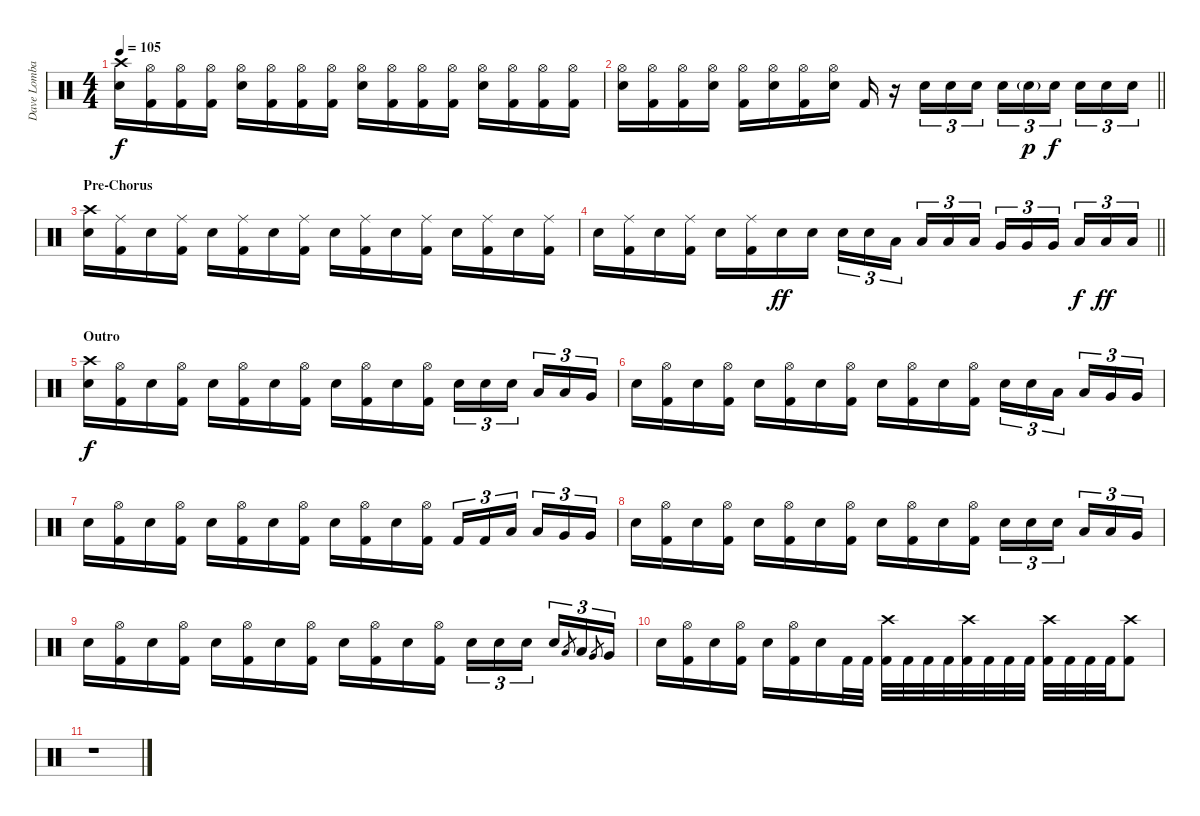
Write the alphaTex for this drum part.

\track ("Dave Lombardo" "Dave Lomba") {instrument percussion}
\staff {score}
\articulation defaults
\ts (4 4)
\tempo 105
\clef neutral
\ks c
("Crash high (hit)" "Snare (hit) 2").16{dy f} ("Hi-Hat (open)" "Kick (hit) 2").16 ("Hi-Hat (open)" "Kick (hit) 2").16 ("Hi-Hat (open)" "Kick (hit) 2").16 ("Hi-Hat (open)" "Snare (hit) 2").16 ("Hi-Hat (open)" "Kick (hit) 2").16 ("Hi-Hat (open)" "Kick (hit) 2").16 ("Hi-Hat (open)" "Kick (hit) 2").16 ("Hi-Hat (open)" "Snare (hit) 2").16 ("Hi-Hat (open)" "Kick (hit) 2").16 ("Hi-Hat (open)" "Kick (hit) 2").16 ("Hi-Hat (open)" "Kick (hit) 2").16 ("Hi-Hat (open)" "Snare (hit) 2").16 ("Hi-Hat (open)" "Kick (hit) 2").16 ("Hi-Hat (open)" "Kick (hit) 2").16 ("Hi-Hat (open)" "Kick (hit) 2").16 |
\barLineRight lightlight
("Hi-Hat (open)" "Snare (hit) 2").16 ("Hi-Hat (open)" "Kick (hit) 2").16 ("Hi-Hat (open)" "Kick (hit) 2").16 ("Hi-Hat (open)" "Snare (hit) 2").16 ("Hi-Hat (open)" "Kick (hit) 2").16 ("Hi-Hat (open)" "Snare (hit) 2").16 ("Hi-Hat (open)" "Kick (hit) 2").16 ("Hi-Hat (open)" "Snare (hit) 2").16 "Kick (hit) 2".16 r.16 "Snare (hit) 2".16{tu (3 2)} "Snare (hit) 2".16{tu (3 2)} "Snare (hit) 2".16{tu (3 2)} "Snare (hit) 2".16{tu (3 2)} "Snare (hit) 2"{g}.16{tu (3 2) dy p} "Snare (hit) 2".16{tu (3 2) dy f beam splitsecondary} "Snare (hit) 2".16{tu (3 2)} "Snare (hit) 2".16{tu (3 2)} "Snare (hit) 2".16{tu (3 2)} |
\section ("" "Pre-Chorus")
("Crash high (hit)" "Snare (hit) 2").16 ("Ride (middle)" "Kick (hit) 2").16 "Snare (hit) 2".16 ("Ride (middle)" "Kick (hit) 2").16 "Snare (hit) 2".16 ("Ride (middle)" "Kick (hit) 2").16 "Snare (hit) 2".16 ("Ride (middle)" "Kick (hit) 2").16 "Snare (hit) 2".16 ("Ride (middle)" "Kick (hit) 2").16 "Snare (hit) 2".16 ("Ride (middle)" "Kick (hit) 2").16 "Snare (hit) 2".16 ("Ride (middle)" "Kick (hit) 2").16 "Snare (hit) 2".16 ("Ride (middle)" "Kick (hit) 2").16 |
\barLineRight lightlight "Snare (hit) 2".16
("Ride (middle)" "Kick (hit) 2").16 "Snare (hit) 2".16 ("Ride (middle)" "Kick (hit) 2").16 "Snare (hit) 2".16 ("Ride (middle)" "Kick (hit) 2").16 "Snare (hit) 2".16{dy ff} "Snare (hit) 2".16 "Snare (hit) 2".16{tu (3 2)} "Snare (hit) 2".16{tu (3 2)} "Low Tom (hit)".16{tu (3 2) beam splitsecondary} "Low Tom (hit)".16{tu (3 2)} "Low Tom (hit)".16{tu (3 2)} "Low Tom (hit)".16{tu (3 2)} "Very Low Tom (hit)".16{tu (3 2)} "Very Low Tom (hit)".16{tu (3 2)} "Very Low Tom (hit)".16{tu (3 2) beam splitsecondary} "Low Floor Tom (hit)".16{tu (3 2) dy f} "Low Floor Tom (hit)".16{tu (3 2) dy ff} "Low Floor Tom (hit)".16{tu (3 2)} |
\section ("" "Outro")
("Crash high (hit)" "Snare (hit) 2").16{dy f} ("Hi-Hat (open)" "Kick (hit) 2").16 "Snare (hit) 2".16 ("Hi-Hat (open)" "Kick (hit) 2").16 "Snare (hit) 2".16 ("Hi-Hat (open)" "Kick (hit) 2").16 "Snare (hit) 2".16 ("Hi-Hat (open)" "Kick (hit) 2").16 "Snare (hit) 2".16 ("Hi-Hat (open)" "Kick (hit) 2").16 "Snare (hit) 2".16 ("Hi-Hat (open)" "Kick (hit) 2").16 "Snare (hit) 2".16{tu (3 2)} "Snare (hit) 2".16{tu (3 2)} "Snare (hit) 2".16{tu (3 2) beam splitsecondary} "Low Tom (hit)".16{tu (3 2)} "Low Tom (hit)".16{tu (3 2)} "Very Low Tom (hit)".16{tu (3 2)} |
"Snare (hit) 2".16 ("Hi-Hat (open)" "Kick (hit) 2").16 "Snare (hit) 2".16 ("Hi-Hat (open)" "Kick (hit) 2").16 "Snare (hit) 2".16 ("Hi-Hat (open)" "Kick (hit) 2").16 "Snare (hit) 2".16 ("Hi-Hat (open)" "Kick (hit) 2").16 "Snare (hit) 2".16 ("Hi-Hat (open)" "Kick (hit) 2").16 "Snare (hit) 2".16 ("Hi-Hat (open)" "Kick (hit) 2").16 "Snare (hit) 2".16{tu (3 2)} "Snare (hit) 2".16{tu (3 2)} "Low Tom (hit)".16{tu (3 2) beam splitsecondary} "Low Tom (hit)".16{tu (3 2)} "Very Low Tom (hit)".16{tu (3 2)} "Very Low Tom (hit)".16{tu (3 2)} |
"Snare (hit) 2".16 ("Hi-Hat (open)" "Kick (hit) 2").16 "Snare (hit) 2".16 ("Hi-Hat (open)" "Kick (hit) 2").16 "Snare (hit) 2".16 ("Hi-Hat (open)" "Kick (hit) 2").16 "Snare (hit) 2".16 ("Hi-Hat (open)" "Kick (hit) 2").16 "Snare (hit) 2".16 ("Hi-Hat (open)" "Kick (hit) 2").16 "Snare (hit) 2".16 ("Hi-Hat (open)" "Kick (hit) 2").16 "Kick (hit) 2".16{tu (3 2)} "Kick (hit) 2".16{tu (3 2)} "Low Tom (hit)".16{tu (3 2) beam splitsecondary} "Low Tom (hit)".16{tu (3 2)} "Very Low Tom (hit)".16{tu (3 2)} "Very Low Tom (hit)".16{tu (3 2)} |
"Snare (hit) 2".16 ("Hi-Hat (open)" "Kick (hit) 2").16 "Snare (hit) 2".16 ("Hi-Hat (open)" "Kick (hit) 2").16 "Snare (hit) 2".16 ("Hi-Hat (open)" "Kick (hit) 2").16 "Snare (hit) 2".16 ("Hi-Hat (open)" "Kick (hit) 2").16 "Snare (hit) 2".16 ("Hi-Hat (open)" "Kick (hit) 2").16 "Snare (hit) 2".16 ("Hi-Hat (open)" "Kick (hit) 2").16 "Snare (hit) 2".16{tu (3 2)} "Snare (hit) 2".16{tu (3 2)} "Snare (hit) 2".16{tu (3 2) beam splitsecondary} "Low Tom (hit)".16{tu (3 2)} "Low Tom (hit)".16{tu (3 2)} "Very Low Tom (hit)".16{tu (3 2)} |
"Snare (hit) 2".16 ("Hi-Hat (open)" "Kick (hit) 2").16 "Snare (hit) 2".16 ("Hi-Hat (open)" "Kick (hit) 2").16 "Snare (hit) 2".16 ("Hi-Hat (open)" "Kick (hit) 2").16 "Snare (hit) 2".16 ("Hi-Hat (open)" "Kick (hit) 2").16 "Snare (hit) 2".16 ("Hi-Hat (open)" "Kick (hit) 2").16 "Snare (hit) 2".16 ("Hi-Hat (open)" "Kick (hit) 2").16 "Snare (hit) 2".16{tu (3 2)} "Snare (hit) 2".16{tu (3 2)} "Snare (hit) 2".16{tu (3 2) beam splitsecondary} "Snare (hit) 2".16{tu (3 2)} "Low Tom (hit)".8{gr} "Low Tom (hit)".16{tu (3 2)} "Very Low Tom (hit)".8{gr} "Very Low Tom (hit)".16{tu (3 2)} |
"Snare (hit) 2".16 ("Hi-Hat (open)" "Kick (hit) 2").16 "Snare (hit) 2".16 ("Hi-Hat (open)" "Kick (hit) 2").16 "Snare (hit) 2".16 ("Hi-Hat (open)" "Kick (hit) 2").16 "Snare (hit) 2".16 "Kick (hit) 2".32 "Kick (hit) 2".32 ("Crash high (hit)" "Kick (hit) 2").32 "Kick (hit) 2".32 "Kick (hit) 2".32 "Kick (hit) 2".32 ("Crash high (hit)" "Kick (hit) 2").32 "Kick (hit) 2".32 "Kick (hit) 2".32 "Kick (hit) 2".32 ("Crash high (hit)" "Kick (hit) 2").32 "Kick (hit) 2".32 "Kick (hit) 2".32 "Kick (hit) 2".32 ("Crash high (hit)" "Kick (hit) 2").8 |
r.1
